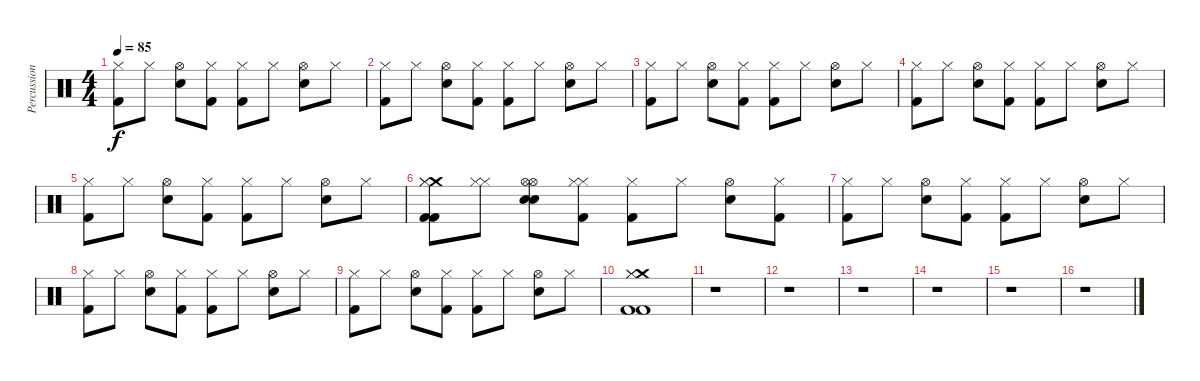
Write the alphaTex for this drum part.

\track ("Percussion" "Percussion") {instrument percussion}
\staff {score}
\articulation defaults
\ts (4 4)
\tempo 85
\clef neutral
\ks c
("Kick (hit) 2" "Hi-Hat (closed)").8{dy f} "Hi-Hat (closed)".8 ("Hi-Hat (open)" "Electric Snare (hit)").8 ("Kick (hit) 2" "Hi-Hat (closed)").8 ("Kick (hit) 2" "Hi-Hat (closed)").8 "Hi-Hat (closed)".8 ("Hi-Hat (open)" "Electric Snare (hit)").8 "Hi-Hat (closed)".8 |
("Kick (hit) 2" "Hi-Hat (closed)").8 "Hi-Hat (closed)".8 ("Hi-Hat (open)" "Electric Snare (hit)").8 ("Kick (hit) 2" "Hi-Hat (closed)").8 ("Kick (hit) 2" "Hi-Hat (closed)").8 "Hi-Hat (closed)".8 ("Hi-Hat (open)" "Electric Snare (hit)").8 "Hi-Hat (closed)".8 |
("Kick (hit) 2" "Hi-Hat (closed)").8 "Hi-Hat (closed)".8 ("Hi-Hat (open)" "Electric Snare (hit)").8 ("Kick (hit) 2" "Hi-Hat (closed)").8 ("Kick (hit) 2" "Hi-Hat (closed)").8 "Hi-Hat (closed)".8 ("Hi-Hat (open)" "Electric Snare (hit)").8 "Hi-Hat (closed)".8 |
("Kick (hit) 2" "Hi-Hat (closed)").8 "Hi-Hat (closed)".8 ("Hi-Hat (open)" "Electric Snare (hit)").8 ("Kick (hit) 2" "Hi-Hat (closed)").8 ("Kick (hit) 2" "Hi-Hat (closed)").8 "Hi-Hat (closed)".8 ("Hi-Hat (open)" "Electric Snare (hit)").8 "Hi-Hat (closed)".8 |
("Kick (hit) 2" "Hi-Hat (closed)").8 "Hi-Hat (closed)".8 ("Hi-Hat (open)" "Electric Snare (hit)").8 ("Kick (hit) 2" "Hi-Hat (closed)").8 ("Kick (hit) 2" "Hi-Hat (closed)").8 "Hi-Hat (closed)".8 ("Hi-Hat (open)" "Electric Snare (hit)").8 "Hi-Hat (closed)".8 |
("Crash medium (hit)" "Kick (hit) 2" "Hi-Hat (closed)" "Kick (hit) 2" "Hi-Hat (closed)").8 ("Hi-Hat (closed)" "Hi-Hat (closed)").8 ("Hi-Hat (open)" "Electric Snare (hit)" "Hi-Hat (open)" "Electric Snare (hit)").8 ("Hi-Hat (closed)" "Kick (hit) 2" "Hi-Hat (closed)").8 ("Kick (hit) 2" "Hi-Hat (closed)").8 "Hi-Hat (closed)".8 ("Hi-Hat (open)" "Electric Snare (hit)").8 ("Kick (hit) 2" "Hi-Hat (closed)").8 |
("Kick (hit) 2" "Hi-Hat (closed)").8 "Hi-Hat (closed)".8 ("Hi-Hat (open)" "Electric Snare (hit)").8 ("Kick (hit) 2" "Hi-Hat (closed)").8 ("Kick (hit) 2" "Hi-Hat (closed)").8 "Hi-Hat (closed)".8 ("Hi-Hat (open)" "Electric Snare (hit)").8 "Hi-Hat (closed)".8 |
("Kick (hit) 2" "Hi-Hat (closed)").8 "Hi-Hat (closed)".8 ("Hi-Hat (open)" "Electric Snare (hit)").8 ("Kick (hit) 2" "Hi-Hat (closed)").8 ("Kick (hit) 2" "Hi-Hat (closed)").8 "Hi-Hat (closed)".8 ("Hi-Hat (open)" "Electric Snare (hit)").8 "Hi-Hat (closed)".8 |
("Kick (hit) 2" "Hi-Hat (closed)").8 "Hi-Hat (closed)".8 ("Hi-Hat (open)" "Electric Snare (hit)").8 ("Kick (hit) 2" "Hi-Hat (closed)").8 ("Kick (hit) 2" "Hi-Hat (closed)").8 "Hi-Hat (closed)".8 ("Hi-Hat (open)" "Electric Snare (hit)").8 "Hi-Hat (closed)".8 |
("Crash medium (hit)" "Kick (hit) 2" "Hi-Hat (closed)" "Kick (hit) 2" "Hi-Hat (closed)").1 |
r.1 |
r.1 |
r.1 |
r.1 |
r.1 |
r.1
